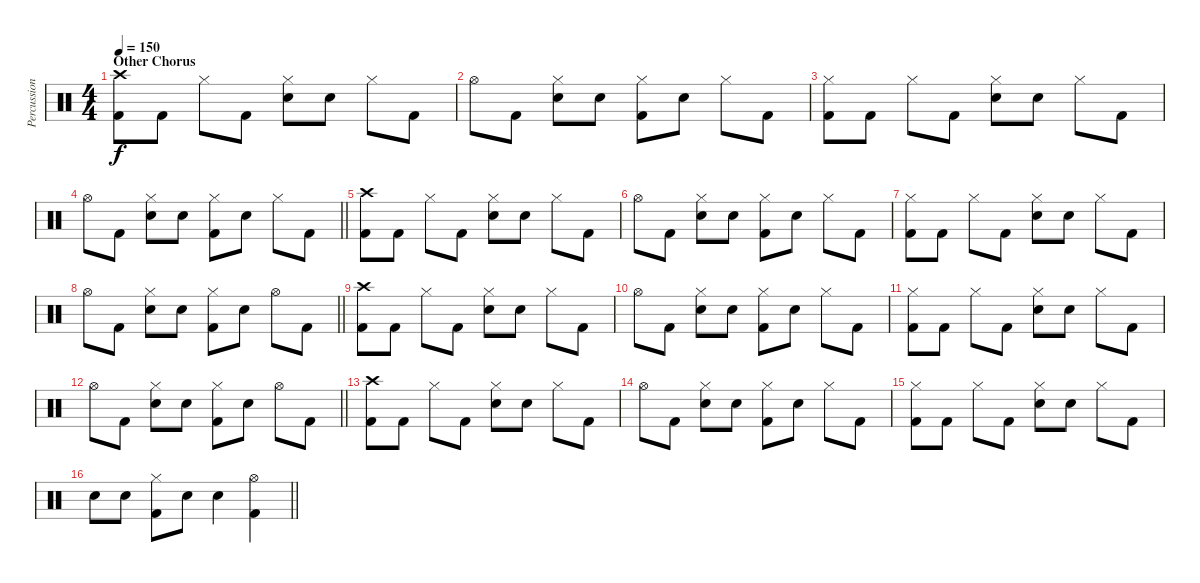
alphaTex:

\track ("Percussion" "Percussion") {instrument percussion}
\staff {score}
\articulation defaults
\ts (4 4)
\section ("" "Other Chorus")
\tempo 150
\clef neutral
\ks c
("Crash high (hit)" "Kick (hit) 2").8{dy f} "Kick (hit) 2".8 "Hi-Hat (closed)".8 "Kick (hit) 2".8 ("Hi-Hat (closed)" "Electric Snare (hit)").8 "Electric Snare (hit)".8 "Hi-Hat (closed)".8 "Kick (hit) 2".8 |
"Hi-Hat (open)".8 "Kick (hit) 2".8 ("Hi-Hat (closed)" "Electric Snare (hit)").8 "Electric Snare (hit)".8 ("Hi-Hat (closed)" "Kick (hit) 2").8 "Electric Snare (hit)".8 "Hi-Hat (closed)".8 "Kick (hit) 2".8 |
("Hi-Hat (closed)" "Kick (hit) 2").8 "Kick (hit) 2".8 "Hi-Hat (closed)".8 "Kick (hit) 2".8 ("Hi-Hat (closed)" "Electric Snare (hit)").8 "Electric Snare (hit)".8 "Hi-Hat (closed)".8 "Kick (hit) 2".8 |
\barLineRight lightlight "Hi-Hat (open)".8 "Kick (hit) 2".8
("Hi-Hat (closed)" "Electric Snare (hit)").8 "Electric Snare (hit)".8 ("Hi-Hat (closed)" "Kick (hit) 2").8 "Electric Snare (hit)".8 "Hi-Hat (closed)".8 "Kick (hit) 2".8 |
("Crash high (hit)" "Kick (hit) 2").8 "Kick (hit) 2".8 "Hi-Hat (closed)".8 "Kick (hit) 2".8 ("Hi-Hat (closed)" "Electric Snare (hit)").8 "Electric Snare (hit)".8 "Hi-Hat (closed)".8 "Kick (hit) 2".8 |
"Hi-Hat (open)".8 "Kick (hit) 2".8 ("Hi-Hat (closed)" "Electric Snare (hit)").8 "Electric Snare (hit)".8 ("Hi-Hat (closed)" "Kick (hit) 2").8 "Electric Snare (hit)".8 "Hi-Hat (closed)".8 "Kick (hit) 2".8 |
("Hi-Hat (closed)" "Kick (hit) 2").8 "Kick (hit) 2".8 "Hi-Hat (closed)".8 "Kick (hit) 2".8 ("Hi-Hat (closed)" "Electric Snare (hit)").8 "Electric Snare (hit)".8 "Hi-Hat (closed)".8 "Kick (hit) 2".8 |
\barLineRight lightlight "Hi-Hat (open)".8 "Kick (hit) 2".8
("Hi-Hat (closed)" "Electric Snare (hit)").8 "Electric Snare (hit)".8 ("Hi-Hat (closed)" "Kick (hit) 2").8 "Electric Snare (hit)".8 "Hi-Hat (open)".8 "Kick (hit) 2".8 |
("Crash high (hit)" "Kick (hit) 2").8 "Kick (hit) 2".8 "Hi-Hat (closed)".8 "Kick (hit) 2".8 ("Hi-Hat (closed)" "Electric Snare (hit)").8 "Electric Snare (hit)".8 "Hi-Hat (closed)".8 "Kick (hit) 2".8 |
"Hi-Hat (open)".8 "Kick (hit) 2".8 ("Hi-Hat (closed)" "Electric Snare (hit)").8 "Electric Snare (hit)".8 ("Hi-Hat (closed)" "Kick (hit) 2").8 "Electric Snare (hit)".8 "Hi-Hat (closed)".8 "Kick (hit) 2".8 |
("Hi-Hat (closed)" "Kick (hit) 2").8 "Kick (hit) 2".8 "Hi-Hat (closed)".8 "Kick (hit) 2".8 ("Hi-Hat (closed)" "Electric Snare (hit)").8 "Electric Snare (hit)".8 "Hi-Hat (closed)".8 "Kick (hit) 2".8 |
\barLineRight lightlight "Hi-Hat (open)".8 "Kick (hit) 2".8
("Hi-Hat (closed)" "Electric Snare (hit)").8 "Electric Snare (hit)".8 ("Hi-Hat (closed)" "Kick (hit) 2").8 "Electric Snare (hit)".8 "Hi-Hat (open)".8 "Kick (hit) 2".8 |
("Crash high (hit)" "Kick (hit) 2").8 "Kick (hit) 2".8 "Hi-Hat (closed)".8 "Kick (hit) 2".8 ("Hi-Hat (closed)" "Electric Snare (hit)").8 "Electric Snare (hit)".8 "Hi-Hat (closed)".8 "Kick (hit) 2".8 |
"Hi-Hat (open)".8 "Kick (hit) 2".8 ("Hi-Hat (closed)" "Electric Snare (hit)").8 "Electric Snare (hit)".8 ("Hi-Hat (closed)" "Kick (hit) 2").8 "Electric Snare (hit)".8 "Hi-Hat (closed)".8 "Kick (hit) 2".8 |
("Hi-Hat (closed)" "Kick (hit) 2").8 "Kick (hit) 2".8 "Hi-Hat (closed)".8 "Kick (hit) 2".8 ("Hi-Hat (closed)" "Electric Snare (hit)").8 "Electric Snare (hit)".8 "Hi-Hat (closed)".8 "Kick (hit) 2".8 |
\barLineRight lightlight "Electric Snare (hit)".8 "Electric Snare (hit)".8
("Hi-Hat (closed)" "Kick (hit) 2").8 "Electric Snare (hit)".8 "Electric Snare (hit)".4 ("Hi-Hat (open)" "Kick (hit) 2").4
